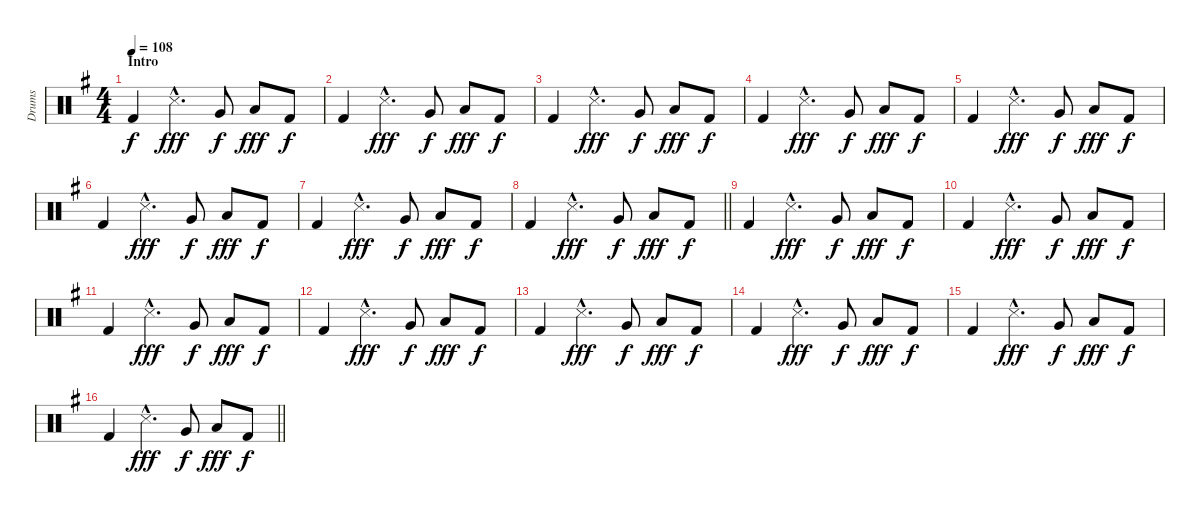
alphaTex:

\track ("Drums" "Drums") {instrument percussion}
\staff {score}
\articulation defaults
\ts (4 4)
\section ("" "Intro")
\tempo 108
\clef neutral
\ks g "Kick (hit) 2".4{dy f} "Metronome (hit)"{hac}.4{d dy fff} "Very Low Tom (hit)".8{dy f} "Low Tom (hit)".8{dy fff} "Kick (hit) 2".8{dy f}
|
"Kick (hit) 2".4 "Metronome (hit)"{hac}.4{d dy fff} "Very Low Tom (hit)".8{dy f} "Low Tom (hit)".8{dy fff} "Kick (hit) 2".8{dy f} |
"Kick (hit) 2".4 "Metronome (hit)"{hac}.4{d dy fff} "Very Low Tom (hit)".8{dy f} "Low Tom (hit)".8{dy fff} "Kick (hit) 2".8{dy f} |
"Kick (hit) 2".4 "Metronome (hit)"{hac}.4{d dy fff} "Very Low Tom (hit)".8{dy f} "Low Tom (hit)".8{dy fff} "Kick (hit) 2".8{dy f} |
"Kick (hit) 2".4 "Metronome (hit)"{hac}.4{d dy fff} "Very Low Tom (hit)".8{dy f} "Low Tom (hit)".8{dy fff} "Kick (hit) 2".8{dy f} |
"Kick (hit) 2".4 "Metronome (hit)"{hac}.4{d dy fff} "Very Low Tom (hit)".8{dy f} "Low Tom (hit)".8{dy fff} "Kick (hit) 2".8{dy f} |
"Kick (hit) 2".4 "Metronome (hit)"{hac}.4{d dy fff} "Very Low Tom (hit)".8{dy f} "Low Tom (hit)".8{dy fff} "Kick (hit) 2".8{dy f} |
\barLineRight lightlight "Kick (hit) 2".4 "Metronome (hit)"{hac}.4{d dy fff} "Very Low Tom (hit)".8{dy f} "Low Tom (hit)".8{dy fff} "Kick (hit) 2".8{dy f}
|
"Kick (hit) 2".4 "Metronome (hit)"{hac}.4{d dy fff} "Very Low Tom (hit)".8{dy f} "Low Tom (hit)".8{dy fff} "Kick (hit) 2".8{dy f} |
"Kick (hit) 2".4 "Metronome (hit)"{hac}.4{d dy fff} "Very Low Tom (hit)".8{dy f} "Low Tom (hit)".8{dy fff} "Kick (hit) 2".8{dy f} |
"Kick (hit) 2".4 "Metronome (hit)"{hac}.4{d dy fff} "Very Low Tom (hit)".8{dy f} "Low Tom (hit)".8{dy fff} "Kick (hit) 2".8{dy f} |
"Kick (hit) 2".4 "Metronome (hit)"{hac}.4{d dy fff} "Very Low Tom (hit)".8{dy f} "Low Tom (hit)".8{dy fff} "Kick (hit) 2".8{dy f} |
"Kick (hit) 2".4 "Metronome (hit)"{hac}.4{d dy fff} "Very Low Tom (hit)".8{dy f} "Low Tom (hit)".8{dy fff} "Kick (hit) 2".8{dy f} |
"Kick (hit) 2".4 "Metronome (hit)"{hac}.4{d dy fff} "Very Low Tom (hit)".8{dy f} "Low Tom (hit)".8{dy fff} "Kick (hit) 2".8{dy f} |
"Kick (hit) 2".4 "Metronome (hit)"{hac}.4{d dy fff} "Very Low Tom (hit)".8{dy f} "Low Tom (hit)".8{dy fff} "Kick (hit) 2".8{dy f} |
\barLineRight lightlight "Kick (hit) 2".4 "Metronome (hit)"{hac}.4{d dy fff} "Very Low Tom (hit)".8{dy f} "Low Tom (hit)".8{dy fff} "Kick (hit) 2".8{dy f}
